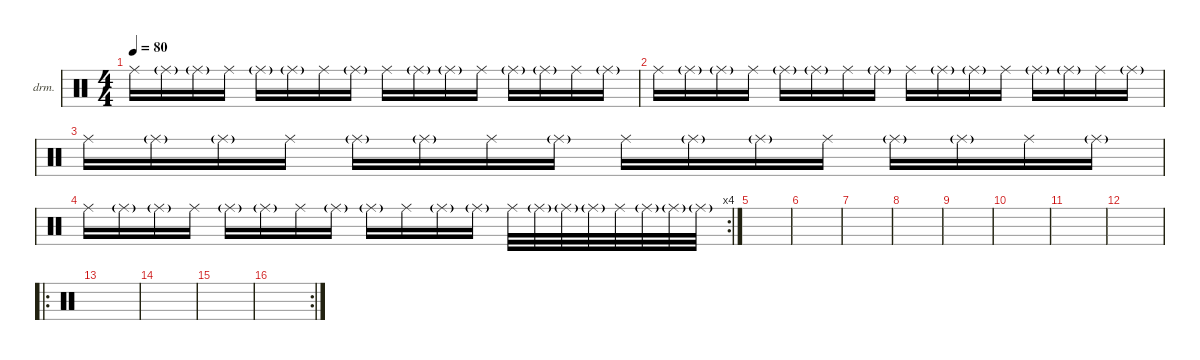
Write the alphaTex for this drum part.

\defaultSystemsLayout 4
\hideDynamics
\bracketExtendMode nobrackets
\firstSystemTrackNameOrientation horizontal
\otherSystemsTrackNameOrientation horizontal
\track ("Drumkit" "drm.") {instrument percussion}
\staff {score}
\articulation defaults
\ts (4 4)
\beaming (8 2 2 2 2)
\tempo 80
\clef neutral
\ks c "Ride (middle)".16{dy f beam Down} "Ride (middle)"{g}.16{beam Down} "Ride (middle)"{g}.16{beam Down} "Ride (middle)".16{beam Down} "Ride (middle)"{g}.16{beam Down} "Ride (middle)"{g}.16{beam Down} "Ride (middle)".16{beam Down} "Ride (middle)"{g}.16{beam Down} "Ride (middle)".16{beam Down} "Ride (middle)"{g}.16{beam Down} "Ride (middle)"{g}.16{beam Down} "Ride (middle)".16{beam Down} "Ride (middle)"{g}.16{beam Down} "Ride (middle)"{g}.16{beam Down} "Ride (middle)".16{beam Down} "Ride (middle)"{g}.16{beam Down}
|
"Ride (middle)".16{beam Down} "Ride (middle)"{g}.16{beam Down} "Ride (middle)"{g}.16{beam Down} "Ride (middle)".16{beam Down} "Ride (middle)"{g}.16{beam Down} "Ride (middle)"{g}.16{beam Down} "Ride (middle)".16{beam Down} "Ride (middle)"{g}.16{beam Down} "Ride (middle)".16{beam Down} "Ride (middle)"{g}.16{beam Down} "Ride (middle)"{g}.16{beam Down} "Ride (middle)".16{beam Down} "Ride (middle)"{g}.16{beam Down} "Ride (middle)"{g}.16{beam Down} "Ride (middle)".16{beam Down} "Ride (middle)"{g}.16{beam Down} |
"Ride (middle)".16{beam Down} "Ride (middle)"{g}.16{beam Down} "Ride (middle)"{g}.16{beam Down} "Ride (middle)".16{beam Down} "Ride (middle)"{g}.16{beam Down} "Ride (middle)"{g}.16{beam Down} "Ride (middle)".16{beam Down} "Ride (middle)"{g}.16{beam Down} "Ride (middle)".16{beam Down} "Ride (middle)"{g}.16{beam Down} "Ride (middle)"{g}.16{beam Down} "Ride (middle)".16{beam Down} "Ride (middle)"{g}.16{beam Down} "Ride (middle)"{g}.16{beam Down} "Ride (middle)".16{beam Down} "Ride (middle)"{g}.16{beam Down} |
\rc 4 "Ride (middle)".16{beam Down} "Ride (middle)"{g}.16{beam Down} "Ride (middle)"{g}.16{beam Down} "Ride (middle)".16{beam Down} "Ride (middle)"{g}.16{beam Down} "Ride (middle)"{g}.16{beam Down} "Ride (middle)".16{beam Down} "Ride (middle)"{g}.16{beam Down} "Ride (middle)"{g}.16{beam Down} "Ride (middle)".16{beam Down} "Ride (middle)"{g}.16{beam Down} "Ride (middle)"{g}.16{beam Down} "Ride (middle)".32{beam Down} "Ride (middle)"{g}.32{beam Down} "Ride (middle)"{g}.32{beam Down} "Ride (middle)"{g}.32{beam Down} "Ride (middle)".32{beam Down} "Ride (middle)"{g}.32{beam Down} "Ride (middle)"{g}.32{beam Down} "Ride (middle)"{g}.32{beam Down}
|
|
|
|
|
|
|
|
|
\ro
|
|
|
\rc 2
